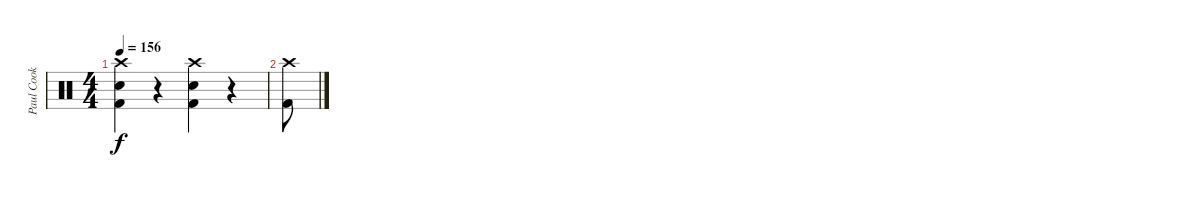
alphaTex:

\track ("Paul Cook" "Paul Cook") {instrument percussion}
\staff {score}
\articulation defaults
\ts (4 4)
\tempo 156
\clef neutral
\ks c
("Crash high (hit)" "Kick (hit) 2" "Snare (hit) 2").4{dy f} r.4 ("Crash high (hit)" "Kick (hit) 2" "Snare (hit) 2").4 r.4 |
("Crash high (hit)" "Kick (hit) 2").8
